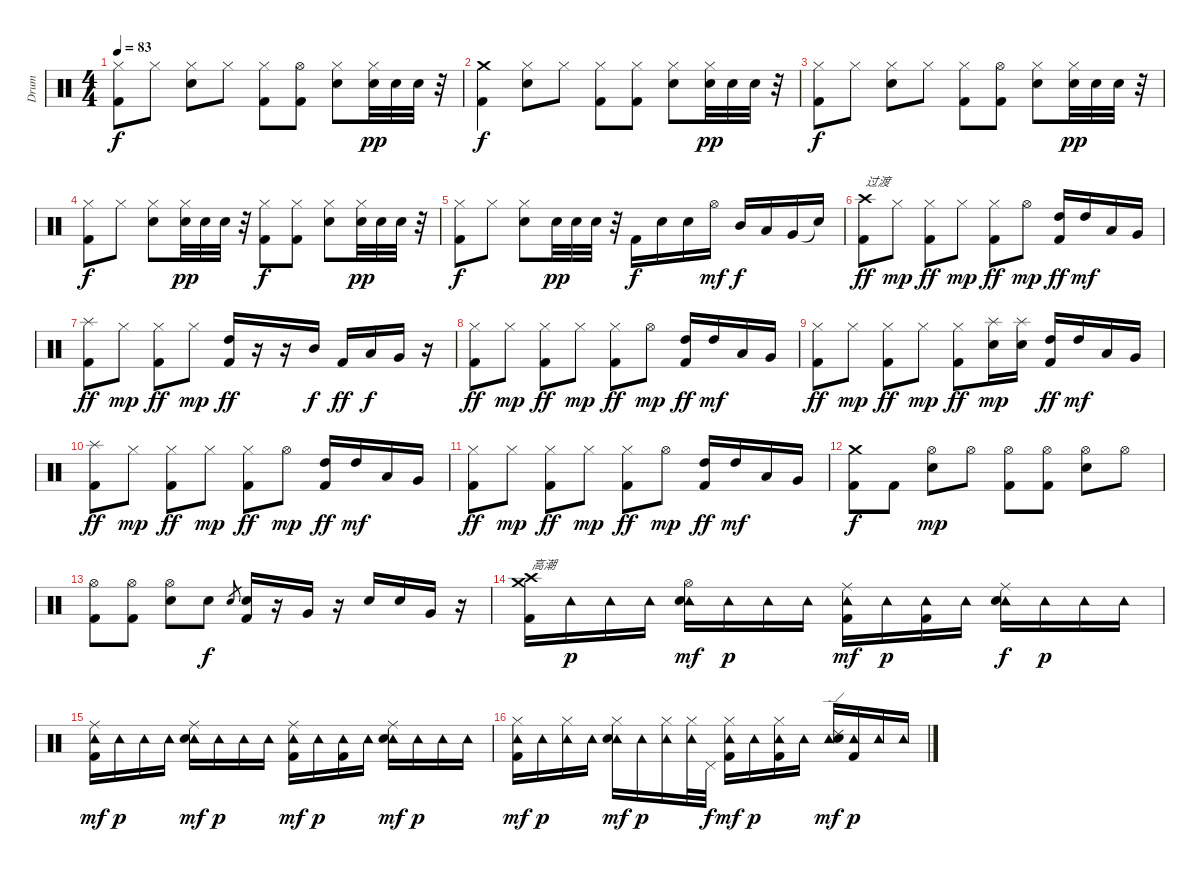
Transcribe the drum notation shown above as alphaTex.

\track ("Drum" "Drum") {instrument percussion}
\staff {score}
\articulation defaults
\ts (4 4)
\tempo 83
\clef neutral
\ks c
("Hi-Hat (closed)" "Kick (hit) 2").8{dy f} "Hi-Hat (closed)".8 ("Hi-Hat (closed)" "Electric Snare (hit)").8 "Hi-Hat (closed)".8 ("Hi-Hat (closed)" "Kick (hit) 2").8 ("Hi-Hat (open)" "Kick (hit) 2").8 ("Hi-Hat (closed)" "Electric Snare (hit)").8 ("Hi-Hat (closed)" "Snare (hit) 2").32{dy pp} "Snare (hit) 2".32 "Snare (hit) 2".32 r.32 |
("Crash medium (hit)" "Kick (hit) 2").4{dy f} ("Hi-Hat (closed)" "Electric Snare (hit)").8 "Hi-Hat (closed)".8 ("Hi-Hat (closed)" "Kick (hit) 2").8 ("Hi-Hat (closed)" "Kick (hit) 2").8 ("Hi-Hat (closed)" "Electric Snare (hit)").8 ("Hi-Hat (closed)" "Snare (hit) 2").32{dy pp} "Snare (hit) 2".32 "Snare (hit) 2".32 r.32 |
("Hi-Hat (closed)" "Kick (hit) 2").8{dy f} "Hi-Hat (closed)".8 ("Hi-Hat (closed)" "Electric Snare (hit)").8 "Hi-Hat (closed)".8 ("Hi-Hat (closed)" "Kick (hit) 2").8 ("Hi-Hat (open)" "Kick (hit) 2").8 ("Hi-Hat (closed)" "Electric Snare (hit)").8 ("Hi-Hat (closed)" "Snare (hit) 2").32{dy pp} "Snare (hit) 2".32 "Snare (hit) 2".32 r.32 |
("Hi-Hat (closed)" "Kick (hit) 2").8{dy f} "Hi-Hat (closed)".8 ("Hi-Hat (closed)" "Electric Snare (hit)").8 ("Hi-Hat (closed)" "Snare (hit) 2").32{dy pp} "Snare (hit) 2".32 "Snare (hit) 2".32 r.32 ("Hi-Hat (closed)" "Kick (hit) 2").8{dy f} ("Hi-Hat (closed)" "Kick (hit) 2").8 ("Hi-Hat (closed)" "Electric Snare (hit)").8 ("Hi-Hat (closed)" "Snare (hit) 2").32{dy pp} "Snare (hit) 2".32 "Snare (hit) 2".32 r.32 |
("Hi-Hat (closed)" "Kick (hit) 2").8{dy f} "Hi-Hat (closed)".8 ("Hi-Hat (closed)" "Electric Snare (hit)").8 "Snare (hit) 2".32{dy pp} "Snare (hit) 2".32 "Snare (hit) 2".32 r.32 "Kick (hit) 2".16{dy f} "Electric Snare (hit)".16 "Electric Snare (hit)".16 "Hi-Hat (open)".16{dy mf} "Mid Tom (hit)".16{dy f} "Low Tom (hit)".16 "Very Low Tom (hit)".16 "Snare (hit)"{t}.16 |
("Crash high (hit)" "Kick (hit) 2").8{txt "过渡" dy ff} "Hi-Hat (closed)".8{dy mp} ("Hi-Hat (closed)" "Kick (hit) 2").8{dy ff} "Hi-Hat (closed)".8{dy mp} ("Hi-Hat (closed)" "Kick (hit) 2").8{dy ff} "Hi-Hat (open)".8{dy mp} ("High Tom (hit)" "Kick (hit) 2").16{dy ff} "High Tom (hit)".16{dy mf} "Low Tom (hit)".16 "Very Low Tom (hit)".16 |
("Splash (hit)" "Kick (hit) 2").8{dy ff} "Hi-Hat (closed)".8{dy mp} ("Hi-Hat (closed)" "Kick (hit) 2").8{dy ff} "Hi-Hat (closed)".8{dy mp} ("High Tom (hit)" "Kick (hit) 2").16{dy ff} r.16 r.16 "Mid Tom (hit)".16{dy f} "Kick (hit) 2".16{dy ff} "Low Tom (hit)".16{dy f} "Very Low Tom (hit)".16 r.16 |
("Hi-Hat (closed)" "Kick (hit) 2").8{dy ff} "Hi-Hat (closed)".8{dy mp} ("Hi-Hat (closed)" "Kick (hit) 2").8{dy ff} "Hi-Hat (closed)".8{dy mp} ("Hi-Hat (closed)" "Kick (hit) 2").8{dy ff} "Hi-Hat (open)".8{dy mp} ("High Tom (hit)" "Kick (hit) 2").16{dy ff} "High Tom (hit)".16{dy mf} "Low Tom (hit)".16 "Very Low Tom (hit)".16 |
("Hi-Hat (closed)" "Kick (hit) 2").8{dy ff} "Hi-Hat (closed)".8{dy mp} ("Hi-Hat (closed)" "Kick (hit) 2").8{dy ff} "Hi-Hat (closed)".8{dy mp} ("Hi-Hat (closed)" "Kick (hit) 2").8{dy ff} ("Splash (hit)" "Electric Snare (hit)").16{dy mp} ("Splash (hit)" "Electric Snare (hit)").16 ("High Tom (hit)" "Kick (hit) 2").16{dy ff} "High Tom (hit)".16{dy mf} "Low Tom (hit)".16 "Very Low Tom (hit)".16 |
("Splash (hit)" "Kick (hit) 2").8{dy ff} "Hi-Hat (closed)".8{dy mp} ("Hi-Hat (closed)" "Kick (hit) 2").8{dy ff} "Hi-Hat (closed)".8{dy mp} ("Hi-Hat (closed)" "Kick (hit) 2").8{dy ff} "Hi-Hat (open)".8{dy mp} ("High Tom (hit)" "Kick (hit) 2").16{dy ff} "High Tom (hit)".16{dy mf} "Low Tom (hit)".16 "Very Low Tom (hit)".16 |
("Hi-Hat (closed)" "Kick (hit) 2").8{dy ff} "Hi-Hat (closed)".8{dy mp} ("Hi-Hat (closed)" "Kick (hit) 2").8{dy ff} "Hi-Hat (closed)".8{dy mp} ("Hi-Hat (closed)" "Kick (hit) 2").8{dy ff} "Hi-Hat (open)".8{dy mp} ("High Tom (hit)" "Kick (hit) 2").16{dy ff} "High Tom (hit)".16{dy mf} "Low Tom (hit)".16 "Very Low Tom (hit)".16 |
("Crash medium (hit)" "Kick (hit) 2").8{dy f} "Kick (hit) 2".8 ("Hi-Hat (open)" "Electric Snare (hit)").8{dy mp} "Hi-Hat (open)".8 ("Hi-Hat (open)" "Kick (hit) 2").8 ("Hi-Hat (open)" "Kick (hit) 2").8 ("Hi-Hat (open)" "Electric Snare (hit)").8 "Hi-Hat (open)".8 |
("Hi-Hat (open)" "Kick (hit) 2").8 ("Hi-Hat (open)" "Kick (hit) 2").8 ("Hi-Hat (open)" "Electric Snare (hit)").8 "Electric Snare (hit)".8{dy f} "Electric Snare (hit)".8{gr} ("Electric Snare (hit)" "Kick (hit) 2").16 r.16 "Very Low Tom (hit)".16 r.16 "Electric Snare (hit)".16 "Electric Snare (hit)".16 "Very Low Tom (hit)".16 r.16 |
("Crash medium (hit)" "Crash high (hit)" "Kick (hit) 2").16{txt "高潮"} "Tambourine (hit)".16{dy p} "Tambourine (hit)".16 "Tambourine (hit)".16 ("Tambourine (hit)" "Hi-Hat (open)" "Electric Snare (hit)").16{dy mf} "Tambourine (hit)".16{dy p} "Tambourine (hit)".16 "Tambourine (hit)".16 ("Tambourine (hit)" "Ride (middle)" "Kick (hit) 2").16{dy mf} "Tambourine (hit)".16{dy p} ("Tambourine (hit)" "Kick (hit) 2").16 "Tambourine (hit)".16 ("Tambourine (hit)" "Ride (middle)" "Electric Snare (hit)").16{dy f} "Tambourine (hit)".16{dy p} "Tambourine (hit)".16 "Tambourine (hit)".16 |
("Tambourine (hit)" "Ride (middle)" "Kick (hit) 2").16{dy mf} "Tambourine (hit)".16{dy p} "Tambourine (hit)".16 "Tambourine (hit)".16 ("Tambourine (hit)" "Ride (middle)" "Electric Snare (hit)").16{dy mf} "Tambourine (hit)".16{dy p} "Tambourine (hit)".16 "Tambourine (hit)".16 ("Tambourine (hit)" "Ride (middle)" "Kick (hit) 2").16{dy mf} "Tambourine (hit)".16{dy p} ("Tambourine (hit)" "Kick (hit) 2").16 "Tambourine (hit)".16 ("Tambourine (hit)" "Ride (middle)" "Electric Snare (hit)").16{dy mf} "Tambourine (hit)".16{dy p} "Tambourine (hit)".16 "Tambourine (hit)".16 |
("Tambourine (hit)" "Hi-Hat (closed)" "Kick (hit) 2").16{dy mf} "Tambourine (hit)".16{dy p} ("Tambourine (hit)" "Hi-Hat (closed)").16 "Tambourine (hit)".16 ("Tambourine (hit)" "Hi-Hat (closed)" "Electric Snare (hit)").16{dy mf} "Tambourine (hit)".16{dy p} ("Tambourine (hit)" "Hi-Hat (closed)").16 ("Tambourine (hit)" "Hi-Hat (closed)").32 "Pedal Hi-Hat (hit)".32{dy f} ("Tambourine (hit)" "Hi-Hat (closed)" "Kick (hit) 2").16{dy mf} "Tambourine (hit)".16{dy p} ("Tambourine (hit)" "Hi-Hat (closed)" "Kick (hit) 2").16 "Tambourine (hit)".16 ("Tambourine (hit)" "Ride (edge) 2" "Electric Snare (hit)").16{dy mf} ("Tambourine (hit)" "Kick (hit) 2").16{dy p} "Tambourine (hit)".16 "Tambourine (hit)".16
